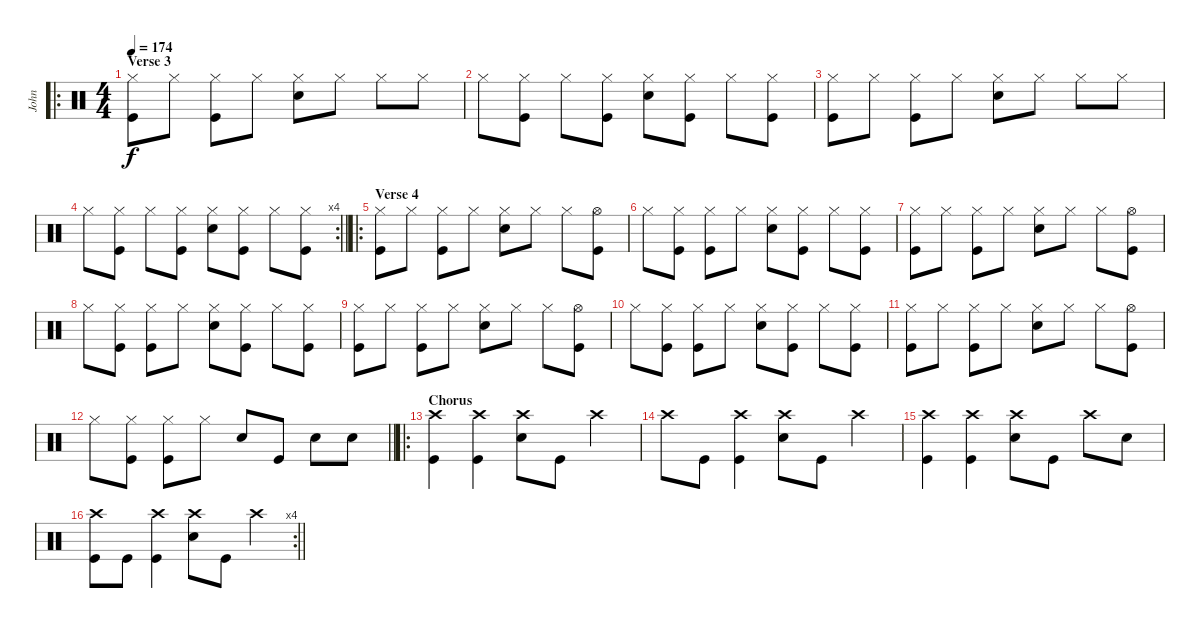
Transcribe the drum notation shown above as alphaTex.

\track ("John" "John") {instrument percussion}
\staff {score}
\articulation defaults
\ro
\ts (4 4)
\section ("" "Verse 3")
\tempo 174
\clef neutral
\ks c
("Hi-Hat (closed)" "Kick (hit)").8{dy f} "Hi-Hat (closed)".8 ("Hi-Hat (closed)" "Kick (hit)").8 "Hi-Hat (closed)".8 ("Hi-Hat (closed)" "Snare (hit) 2").8 "Hi-Hat (closed)".8 "Hi-Hat (closed)".8 "Hi-Hat (closed)".8 |
"Hi-Hat (closed)".8 ("Hi-Hat (closed)" "Kick (hit)").8 "Hi-Hat (closed)".8 ("Hi-Hat (closed)" "Kick (hit)").8 ("Hi-Hat (closed)" "Snare (hit) 2").8 ("Hi-Hat (closed)" "Kick (hit)").8 "Hi-Hat (closed)".8 ("Hi-Hat (closed)" "Kick (hit)").8 |
("Hi-Hat (closed)" "Kick (hit)").8 "Hi-Hat (closed)".8 ("Hi-Hat (closed)" "Kick (hit)").8 "Hi-Hat (closed)".8 ("Hi-Hat (closed)" "Snare (hit) 2").8 "Hi-Hat (closed)".8 "Hi-Hat (closed)".8 "Hi-Hat (closed)".8 |
\rc 4
\barLineRight lightlight "Hi-Hat (closed)".8
("Hi-Hat (closed)" "Kick (hit)").8 "Hi-Hat (closed)".8 ("Hi-Hat (closed)" "Kick (hit)").8 ("Hi-Hat (closed)" "Snare (hit) 2").8 ("Hi-Hat (closed)" "Kick (hit)").8 "Hi-Hat (closed)".8 ("Hi-Hat (closed)" "Kick (hit)").8 |
\ro
\section ("" "Verse 4")
("Hi-Hat (closed)" "Kick (hit)").8 "Hi-Hat (closed)".8 ("Hi-Hat (closed)" "Kick (hit)").8 "Hi-Hat (closed)".8 ("Hi-Hat (closed)" "Snare (hit) 2").8 "Hi-Hat (closed)".8 "Hi-Hat (closed)".8 ("Hi-Hat (open)" "Kick (hit)").8 |
"Hi-Hat (closed)".8 ("Hi-Hat (closed)" "Kick (hit)").8 ("Hi-Hat (closed)" "Kick (hit)").8 "Hi-Hat (closed)".8 ("Hi-Hat (closed)" "Snare (hit) 2").8 ("Hi-Hat (closed)" "Kick (hit)").8 "Hi-Hat (closed)".8 ("Hi-Hat (closed)" "Kick (hit)").8 |
("Hi-Hat (closed)" "Kick (hit)").8 "Hi-Hat (closed)".8 ("Hi-Hat (closed)" "Kick (hit)").8 "Hi-Hat (closed)".8 ("Hi-Hat (closed)" "Snare (hit) 2").8 "Hi-Hat (closed)".8 "Hi-Hat (closed)".8 ("Hi-Hat (open)" "Kick (hit)").8 |
"Hi-Hat (closed)".8 ("Hi-Hat (closed)" "Kick (hit)").8 ("Hi-Hat (closed)" "Kick (hit)").8 "Hi-Hat (closed)".8 ("Hi-Hat (closed)" "Snare (hit) 2").8 ("Hi-Hat (closed)" "Kick (hit)").8 "Hi-Hat (closed)".8 ("Hi-Hat (closed)" "Kick (hit)").8 |
("Hi-Hat (closed)" "Kick (hit)").8 "Hi-Hat (closed)".8 ("Hi-Hat (closed)" "Kick (hit)").8 "Hi-Hat (closed)".8 ("Hi-Hat (closed)" "Snare (hit) 2").8 "Hi-Hat (closed)".8 "Hi-Hat (closed)".8 ("Hi-Hat (open)" "Kick (hit)").8 |
"Hi-Hat (closed)".8 ("Hi-Hat (closed)" "Kick (hit)").8 ("Hi-Hat (closed)" "Kick (hit)").8 "Hi-Hat (closed)".8 ("Hi-Hat (closed)" "Snare (hit) 2").8 ("Hi-Hat (closed)" "Kick (hit)").8 "Hi-Hat (closed)".8 ("Hi-Hat (closed)" "Kick (hit)").8 |
("Hi-Hat (closed)" "Kick (hit)").8 "Hi-Hat (closed)".8 ("Hi-Hat (closed)" "Kick (hit)").8 "Hi-Hat (closed)".8 ("Hi-Hat (closed)" "Snare (hit) 2").8 "Hi-Hat (closed)".8 "Hi-Hat (closed)".8 ("Hi-Hat (open)" "Kick (hit)").8 |
\barLineRight lightlight "Hi-Hat (closed)".8
("Hi-Hat (closed)" "Kick (hit)").8 ("Hi-Hat (closed)" "Kick (hit)").8 "Hi-Hat (closed)".8 "Snare (hit) 2".8 "Kick (hit)".8 "Snare (hit) 2".8 "Snare (hit) 2".8 |
\ro
\section ("" "Chorus ")
("Crash high (hit)" "Kick (hit)").4 ("Crash high (hit)" "Kick (hit)").4 ("Crash high (hit)" "Snare (hit) 2").8 "Kick (hit)".8 "Crash high (hit)".4 |
"Crash high (hit)".8 "Kick (hit)".8 ("Crash high (hit)" "Kick (hit)").4 ("Crash high (hit)" "Snare (hit) 2").8 "Kick (hit)".8 "Crash high (hit)".4 |
("Crash high (hit)" "Kick (hit)").4 ("Crash high (hit)" "Kick (hit)").4 ("Crash high (hit)" "Snare (hit) 2").8 "Kick (hit)".8 "Crash high (hit)".8 "Snare (hit) 2".8 |
\rc 4
\barLineRight lightlight
("Crash high (hit)" "Kick (hit)").8 "Kick (hit)".8 ("Crash high (hit)" "Kick (hit)").4 ("Crash high (hit)" "Snare (hit) 2").8 "Kick (hit)".8 "Crash high (hit)".4
